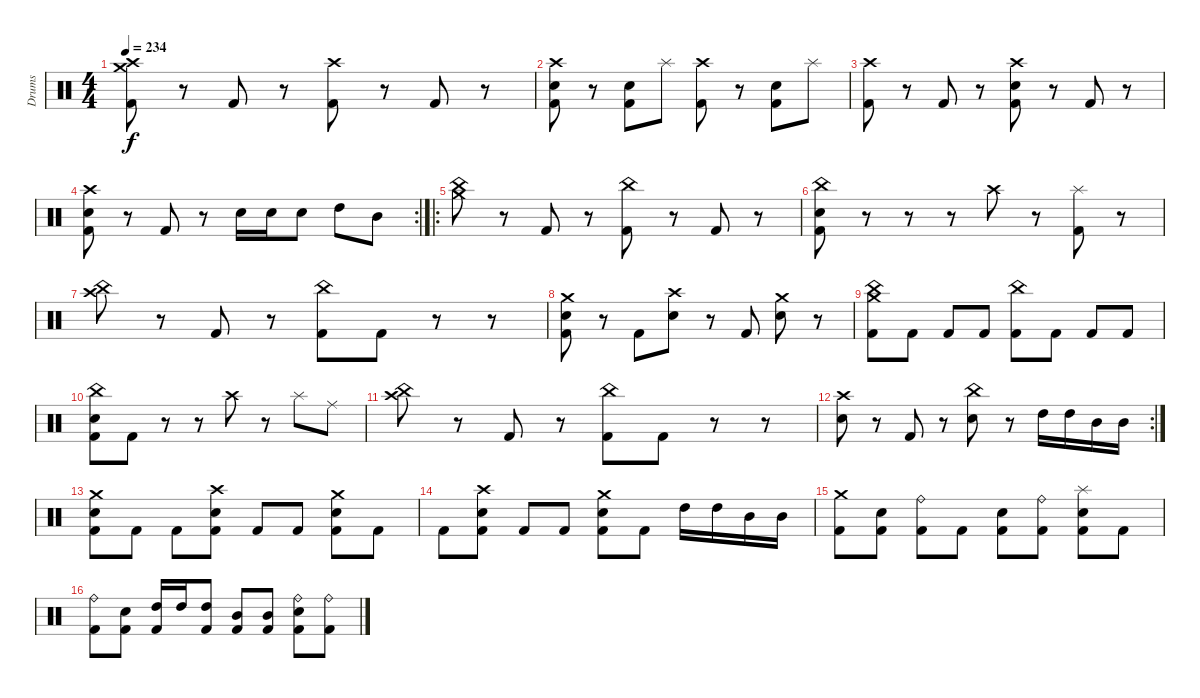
\track ("Drums" "Drums") {instrument percussion}
\staff {score}
\articulation defaults
\ts (4 4)
\tempo 234
\clef neutral
\ks c
("Crash medium (hit)" "Crash high (hit)" "Kick (hit) 2").8{dy f} r.8 "Kick (hit) 2".8 r.8 ("Crash high (hit)" "Kick (hit) 2").8 r.8 "Kick (hit) 2".8 r.8 |
("Crash high (hit)" "Electric Snare (hit)" "Kick (hit) 2").8 r.8 ("Electric Snare (hit)" "Kick (hit) 2").8 "Splash (hit)".8 ("Crash high (hit)" "Kick (hit) 2").8 r.8 ("Electric Snare (hit)" "Kick (hit) 2").8 "Splash (hit)".8 |
("Crash high (hit)" "Kick (hit) 2").8 r.8 "Kick (hit) 2".8 r.8 ("Crash high (hit)" "Electric Snare (hit)" "Kick (hit) 2").8 r.8 "Kick (hit) 2".8 r.8 |
\rc 2
("Crash high (hit)" "Electric Snare (hit)" "Kick (hit) 2").8 r.8 "Kick (hit) 2".8 r.8 "Electric Snare (hit)".16 "Electric Snare (hit)".16 "Electric Snare (hit)".8 "High Tom (hit)".8 "Mid Tom (hit)".8 |
\ro
("Crash medium (hit)" "China (hit)").8 r.8 "Kick (hit) 2".8 r.8 ("China (hit)" "Kick (hit) 2").8 r.8 "Kick (hit) 2".8 r.8 |
("China (hit)" "Electric Snare (hit)" "Kick (hit) 2").8 r.8 r.8 r.8 "Crash high (hit)".8 r.8 ("Splash (hit)" "Kick (hit) 2").8 r.8 |
("China (hit)" "Crash high (hit)").8 r.8 "Kick (hit) 2".8 r.8 ("China (hit)" "Kick (hit) 2").8 "Kick (hit) 2".8 r.8 r.8 |
("Crash medium (hit)" "Electric Snare (hit)" "Kick (hit) 2").8 r.8 "Kick (hit) 2".8 ("Crash high (hit)" "Electric Snare (hit)").8 r.8 "Kick (hit) 2".8 ("Crash medium (hit)" "Electric Snare (hit)").8 r.8 |
("Crash medium (hit)" "China (hit)" "Kick (hit) 2").8 "Kick (hit) 2".8 "Kick (hit) 2".8 "Kick (hit) 2".8 ("China (hit)" "Kick (hit) 2").8 "Kick (hit) 2".8 "Kick (hit) 2".8 "Kick (hit) 2".8 |
("China (hit)" "Electric Snare (hit)" "Kick (hit) 2").8 "Kick (hit) 2".8 r.8 r.8 "Crash high (hit)".8 r.8 "Splash (hit)".8 "Ride (middle)".8 |
("China (hit)" "Crash high (hit)").8 r.8 "Kick (hit) 2".8 r.8 ("China (hit)" "Kick (hit) 2").8 "Kick (hit) 2".8 r.8 r.8 |
\rc 2
("Crash high (hit)" "Electric Snare (hit)").8 r.8 "Kick (hit) 2".8 r.8 ("China (hit)" "Electric Snare (hit)").8 r.8 "High Tom (hit)".16 "High Tom (hit)".16 "Mid Tom (hit)".16 "Mid Tom (hit)".16 |
("Crash medium (hit)" "Electric Snare (hit)" "Kick (hit) 2").8 "Kick (hit) 2".8 "Kick (hit) 2".8 ("Crash high (hit)" "Electric Snare (hit)" "Kick (hit) 2").8 "Kick (hit) 2".8 "Kick (hit) 2".8 ("Crash medium (hit)" "Electric Snare (hit)" "Kick (hit) 2").8 "Kick (hit) 2".8 |
"Kick (hit) 2".8 ("Crash high (hit)" "Electric Snare (hit)" "Kick (hit) 2").8 "Kick (hit) 2".8 "Kick (hit) 2".8 ("Crash medium (hit)" "Electric Snare (hit)" "Kick (hit) 2").8 "Kick (hit) 2".8 "High Tom (hit)".16 "High Tom (hit)".16 "Mid Tom (hit)".16 "Mid Tom (hit)".16 |
("Crash medium (hit)" "Kick (hit) 2").8 ("Electric Snare (hit)" "Kick (hit) 2").8 ("Ride (bell)" "Kick (hit) 2").8 "Kick (hit) 2".8 ("Electric Snare (hit)" "Kick (hit) 2").8 ("Ride (bell)" "Kick (hit) 2").8 ("Splash (hit)" "Electric Snare (hit)" "Kick (hit) 2").8 "Kick (hit) 2".8 |
("Ride (bell)" "Kick (hit) 2").8 ("Electric Snare (hit)" "Kick (hit) 2").8 ("High Tom (hit)" "Kick (hit) 2").16 "High Tom (hit)".16 ("High Tom (hit)" "Kick (hit) 2").8 ("Mid Tom (hit)" "Kick (hit) 2").8 ("Mid Tom (hit)" "Kick (hit) 2").8 ("Ride (bell)" "Electric Snare (hit)" "Kick (hit) 2").8 ("Ride (bell)" "Kick (hit) 2").8
